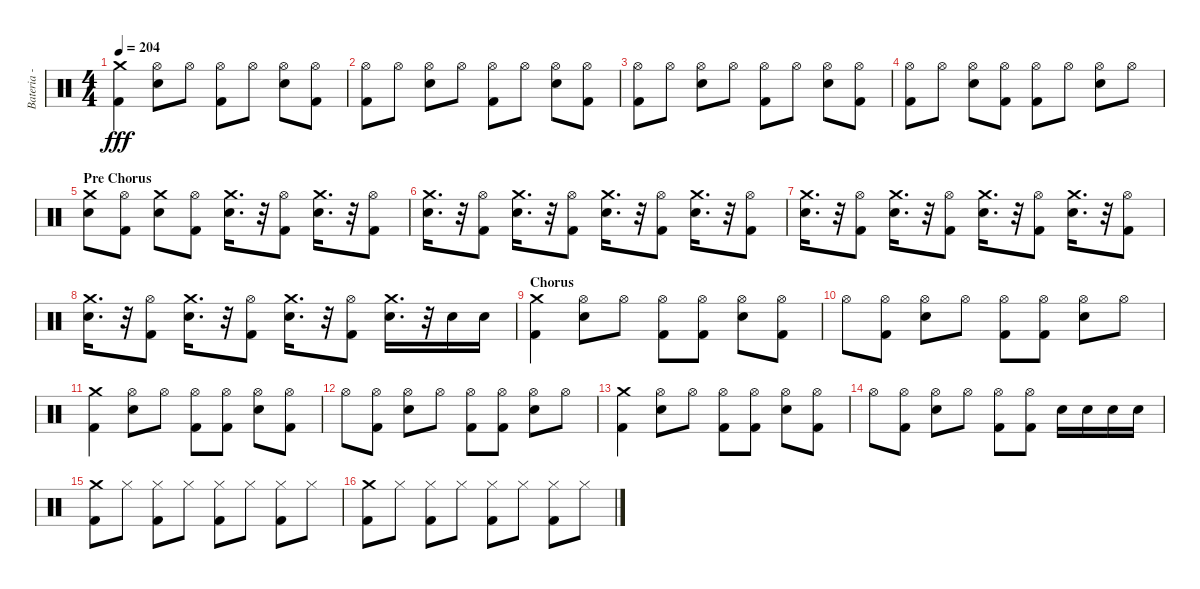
\track ("Bateria - Larzon" "Bateria - ") {instrument percussion}
\staff {score}
\articulation defaults
\ts (4 4)
\tempo 204
\clef neutral
\ks c
("Crash medium (hit)" "Kick (hit) 2").4{dy fff} ("Hi-Hat (open)" "Electric Snare (hit)").8 "Hi-Hat (open)".8 ("Kick (hit) 2" "Hi-Hat (open)").8 "Hi-Hat (open)".8 ("Electric Snare (hit)" "Hi-Hat (open)").8 ("Kick (hit) 2" "Hi-Hat (open)").8 |
("Kick (hit) 2" "Hi-Hat (open)").8 "Hi-Hat (open)".8 ("Electric Snare (hit)" "Hi-Hat (open)").8 "Hi-Hat (open)".8 ("Kick (hit) 2" "Hi-Hat (open)").8 "Hi-Hat (open)".8 ("Electric Snare (hit)" "Hi-Hat (open)").8 ("Hi-Hat (open)" "Kick (hit) 2").8 |
("Kick (hit) 2" "Hi-Hat (open)").8 "Hi-Hat (open)".8 ("Electric Snare (hit)" "Hi-Hat (open)").8 "Hi-Hat (open)".8 ("Kick (hit) 2" "Hi-Hat (open)").8 "Hi-Hat (open)".8 ("Electric Snare (hit)" "Hi-Hat (open)").8 ("Kick (hit) 2" "Hi-Hat (open)").8 |
("Kick (hit) 2" "Hi-Hat (open)").8 "Hi-Hat (open)".8 ("Electric Snare (hit)" "Hi-Hat (open)").8 ("Kick (hit) 2" "Hi-Hat (open)").8 ("Kick (hit) 2" "Hi-Hat (open)").8 "Hi-Hat (open)".8 ("Electric Snare (hit)" "Hi-Hat (open)").8 "Hi-Hat (open)".8 |
\section ("" "Pre Chorus")
("Electric Snare (hit)" "Crash medium (hit)").8 ("Kick (hit) 2" "Hi-Hat (open)").8 ("Electric Snare (hit)" "Crash medium (hit)").8 ("Kick (hit) 2" "Hi-Hat (open)").8 ("Electric Snare (hit)" "Crash medium (hit)").16{d} r.32 ("Kick (hit) 2" "Hi-Hat (open)").8 ("Electric Snare (hit)" "Crash medium (hit)").16{d} r.32 ("Kick (hit) 2" "Hi-Hat (open)").8 |
("Electric Snare (hit)" "Crash medium (hit)").16{d} r.32 ("Kick (hit) 2" "Hi-Hat (open)").8 ("Electric Snare (hit)" "Crash medium (hit)").16{d} r.32 ("Kick (hit) 2" "Hi-Hat (open)").8 ("Electric Snare (hit)" "Crash medium (hit)").16{d} r.32 ("Kick (hit) 2" "Hi-Hat (open)").8 ("Electric Snare (hit)" "Crash medium (hit)").16{d} r.32 ("Kick (hit) 2" "Hi-Hat (open)").8 |
("Electric Snare (hit)" "Crash medium (hit)").16{d} r.32 ("Kick (hit) 2" "Hi-Hat (open)").8 ("Electric Snare (hit)" "Crash medium (hit)").16{d} r.32 ("Kick (hit) 2" "Hi-Hat (open)").8 ("Electric Snare (hit)" "Crash medium (hit)").16{d} r.32 ("Kick (hit) 2" "Hi-Hat (open)").8 ("Electric Snare (hit)" "Crash medium (hit)").16{d} r.32 ("Kick (hit) 2" "Hi-Hat (open)").8 |
("Electric Snare (hit)" "Crash medium (hit)").16{d} r.32 ("Kick (hit) 2" "Hi-Hat (open)").8 ("Electric Snare (hit)" "Crash medium (hit)").16{d} r.32 ("Kick (hit) 2" "Hi-Hat (open)").8 ("Electric Snare (hit)" "Crash medium (hit)").16{d} r.32 ("Kick (hit) 2" "Hi-Hat (open)").8 ("Electric Snare (hit)" "Crash medium (hit)").16{d} r.32 "Electric Snare (hit)".16 "Electric Snare (hit)".16 |
\section ("" "Chorus")
("Crash medium (hit)" "Kick (hit) 2").4 ("Hi-Hat (open)" "Electric Snare (hit)").8 "Hi-Hat (open)".8 ("Hi-Hat (open)" "Kick (hit) 2").8 ("Hi-Hat (open)" "Kick (hit) 2").8 ("Hi-Hat (open)" "Electric Snare (hit)").8 ("Hi-Hat (open)" "Kick (hit) 2").8 |
"Hi-Hat (open)".8 ("Hi-Hat (open)" "Kick (hit) 2").8 ("Hi-Hat (open)" "Electric Snare (hit)").8 "Hi-Hat (open)".8 ("Hi-Hat (open)" "Kick (hit) 2").8 ("Hi-Hat (open)" "Kick (hit) 2").8 ("Hi-Hat (open)" "Electric Snare (hit)").8 "Hi-Hat (open)".8 |
("Crash medium (hit)" "Kick (hit) 2").4 ("Hi-Hat (open)" "Electric Snare (hit)").8 "Hi-Hat (open)".8 ("Hi-Hat (open)" "Kick (hit) 2").8 ("Hi-Hat (open)" "Kick (hit) 2").8 ("Hi-Hat (open)" "Electric Snare (hit)").8 ("Hi-Hat (open)" "Kick (hit) 2").8 |
"Hi-Hat (open)".8 ("Hi-Hat (open)" "Kick (hit) 2").8 ("Hi-Hat (open)" "Electric Snare (hit)").8 "Hi-Hat (open)".8 ("Hi-Hat (open)" "Kick (hit) 2").8 ("Hi-Hat (open)" "Kick (hit) 2").8 ("Electric Snare (hit)" "Hi-Hat (open)").8 "Hi-Hat (open)".8 |
("Crash medium (hit)" "Kick (hit) 2").4 ("Hi-Hat (open)" "Electric Snare (hit)").8 "Hi-Hat (open)".8 ("Hi-Hat (open)" "Kick (hit) 2").8 ("Hi-Hat (open)" "Kick (hit) 2").8 ("Hi-Hat (open)" "Electric Snare (hit)").8 ("Hi-Hat (open)" "Kick (hit) 2").8 |
"Hi-Hat (open)".8 ("Hi-Hat (open)" "Kick (hit) 2").8 ("Hi-Hat (open)" "Electric Snare (hit)").8 "Hi-Hat (open)".8 ("Hi-Hat (open)" "Kick (hit) 2").8 ("Hi-Hat (open)" "Kick (hit) 2").8 "Electric Snare (hit)".16 "Electric Snare (hit)".16 "Electric Snare (hit)".16 "Electric Snare (hit)".16 |
("Kick (hit) 2" "Crash medium (hit)").8 "Hi-Hat (closed)".8 ("Kick (hit) 2" "Hi-Hat (closed)").8 "Hi-Hat (closed)".8 ("Kick (hit) 2" "Hi-Hat (closed)").8 "Hi-Hat (closed)".8 ("Kick (hit) 2" "Hi-Hat (closed)").8 "Hi-Hat (closed)".8 |
("Kick (hit) 2" "Crash medium (hit)").8 "Hi-Hat (closed)".8 ("Kick (hit) 2" "Hi-Hat (closed)").8 "Hi-Hat (closed)".8 ("Kick (hit) 2" "Hi-Hat (closed)").8 "Hi-Hat (closed)".8 ("Kick (hit) 2" "Hi-Hat (closed)").8 "Hi-Hat (closed)".8
